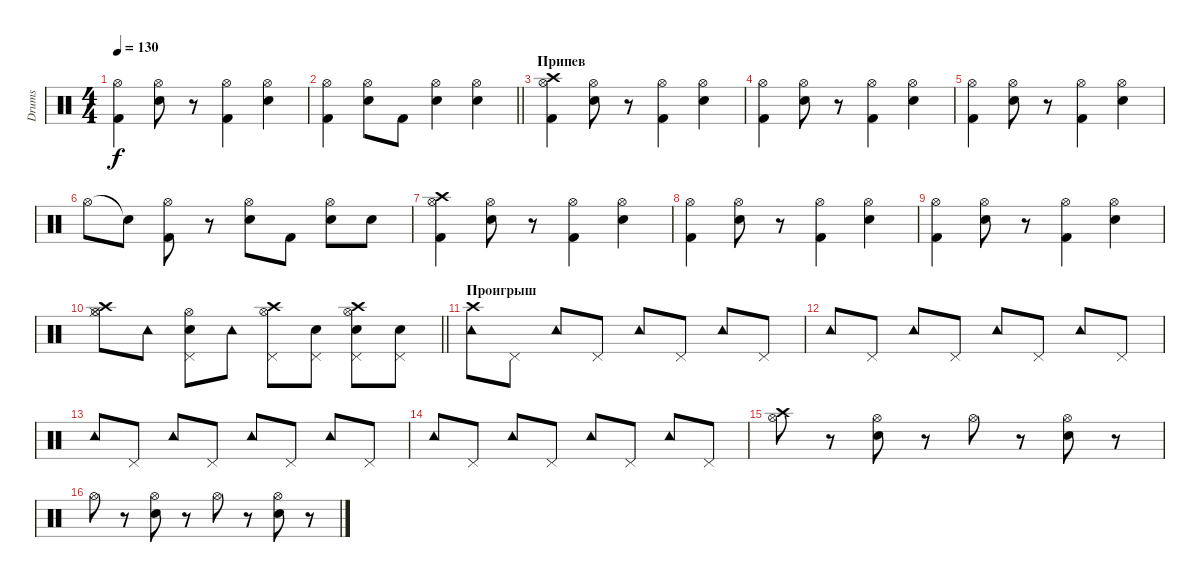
\track ("Drums" "Drums") {instrument percussion}
\staff {score}
\articulation defaults
\ts (4 4)
\tempo 130
\clef neutral
\ks c
("Kick (hit) 2" "Hi-Hat (open)").4{dy f} ("Snare (hit) 2" "Hi-Hat (open)").8 r.8 ("Kick (hit) 2" "Hi-Hat (open)").4 ("Snare (hit) 2" "Hi-Hat (open)").4 |
\barLineRight lightlight
("Kick (hit) 2" "Hi-Hat (open)").4 ("Snare (hit) 2" "Hi-Hat (open)").8 "Kick (hit) 2".8 ("Snare (hit) 2" "Hi-Hat (open)").4 ("Snare (hit) 2" "Hi-Hat (open)").4 |
\section ("" "Припев")
("Crash high (hit)" "Kick (hit) 2" "Hi-Hat (open)").4 ("Snare (hit) 2" "Hi-Hat (open)").8 r.8 ("Kick (hit) 2" "Hi-Hat (open)").4 ("Snare (hit) 2" "Hi-Hat (open)").4 |
("Kick (hit) 2" "Hi-Hat (open)").4 ("Snare (hit) 2" "Hi-Hat (open)").8 r.8 ("Kick (hit) 2" "Hi-Hat (open)").4 ("Snare (hit) 2" "Hi-Hat (open)").4 |
("Kick (hit) 2" "Hi-Hat (open)").4 ("Snare (hit) 2" "Hi-Hat (open)").8 r.8 ("Kick (hit) 2" "Hi-Hat (open)").4 ("Snare (hit) 2" "Hi-Hat (open)").4 |
"Hi-Hat (open)".8 "Snare (hit)"{t}.8 ("Kick (hit) 2" "Hi-Hat (open)").8 r.8 ("Electric Snare (hit)" "Hi-Hat (open)").8 "Kick (hit) 2".8 ("Snare (hit) 2" "Hi-Hat (open)").8 "Electric Snare (hit)".8 |
("Crash high (hit)" "Kick (hit) 2" "Hi-Hat (open)").4 ("Snare (hit) 2" "Hi-Hat (open)").8 r.8 ("Kick (hit) 2" "Hi-Hat (open)").4 ("Snare (hit) 2" "Hi-Hat (open)").4 |
("Kick (hit) 2" "Hi-Hat (open)").4 ("Snare (hit) 2" "Hi-Hat (open)").8 r.8 ("Kick (hit) 2" "Hi-Hat (open)").4 ("Snare (hit) 2" "Hi-Hat (open)").4 |
("Kick (hit) 2" "Hi-Hat (open)").4 ("Snare (hit) 2" "Hi-Hat (open)").8 r.8 ("Kick (hit) 2" "Hi-Hat (open)").4 ("Snare (hit) 2" "Hi-Hat (open)").4 |
\barLineRight lightlight
("Hi-Hat (open)" "Crash high (hit)" "Hi-Hat (closed)").8 "Tambourine (hit)".8 ("Hi-Hat (open)" "Pedal Hi-Hat (hit)" "Snare (hit) 2").8 "Tambourine (hit)".8 ("Hi-Hat (open)" "Crash high (hit)" "Pedal Hi-Hat (hit)").8 ("Pedal Hi-Hat (hit)" "Snare (hit) 2").8 ("Hi-Hat (open)" "Crash high (hit)" "Pedal Hi-Hat (hit)" "Snare (hit) 2").8 ("Pedal Hi-Hat (hit)" "Snare (hit) 2").8 |
\section ("" "Проигрыш")
("Crash high (hit)" "Tambourine (hit)").8 "Pedal Hi-Hat (hit)".8 "Tambourine (hit)".8 "Pedal Hi-Hat (hit)".8 "Tambourine (hit)".8 "Pedal Hi-Hat (hit)".8 "Tambourine (hit)".8 "Pedal Hi-Hat (hit)".8 |
"Tambourine (hit)".8 "Pedal Hi-Hat (hit)".8 "Tambourine (hit)".8 "Pedal Hi-Hat (hit)".8 "Tambourine (hit)".8 "Pedal Hi-Hat (hit)".8 "Tambourine (hit)".8 "Pedal Hi-Hat (hit)".8 |
"Tambourine (hit)".8 "Pedal Hi-Hat (hit)".8 "Tambourine (hit)".8 "Pedal Hi-Hat (hit)".8 "Tambourine (hit)".8 "Pedal Hi-Hat (hit)".8 "Tambourine (hit)".8 "Pedal Hi-Hat (hit)".8 |
"Tambourine (hit)".8 "Pedal Hi-Hat (hit)".8 "Tambourine (hit)".8 "Pedal Hi-Hat (hit)".8 "Tambourine (hit)".8 "Pedal Hi-Hat (hit)".8 "Tambourine (hit)".8 "Pedal Hi-Hat (hit)".8 |
("Crash high (hit)" "Hi-Hat (open)").8 r.8 ("Snare (hit) 2" "Hi-Hat (open)").8 r.8 "Hi-Hat (open)".8 r.8 ("Snare (hit) 2" "Hi-Hat (open)").8 r.8 |
"Hi-Hat (open)".8 r.8 ("Snare (hit) 2" "Hi-Hat (open)").8 r.8 "Hi-Hat (open)".8 r.8 ("Snare (hit) 2" "Hi-Hat (open)").8 r.8
